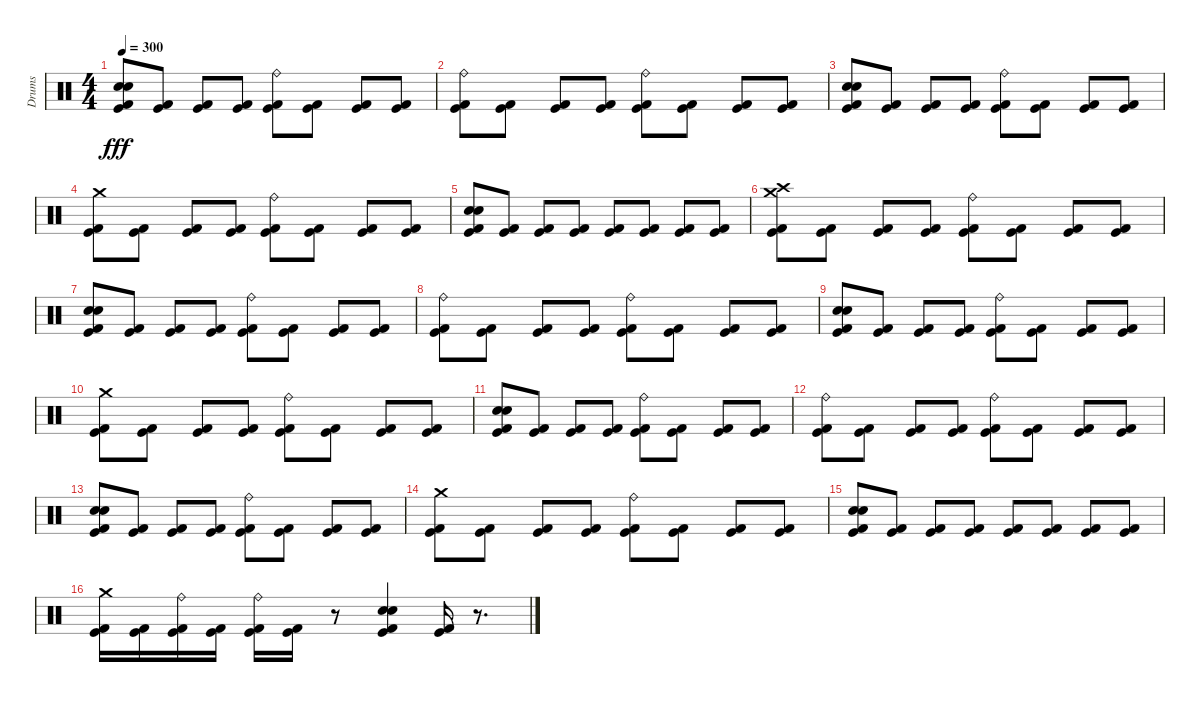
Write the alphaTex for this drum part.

\track ("Drums" "Drums") {instrument percussion}
\staff {score}
\articulation defaults
\ts (4 4)
\tempo 300
\clef neutral
\ks c
("Kick (hit) 2" "Snare (hit) 2" "Electric Snare (hit)" "Kick (hit)").8{dy fff} ("Kick (hit) 2" "Kick (hit)").8 ("Kick (hit) 2" "Kick (hit)").8 ("Kick (hit) 2" "Kick (hit)").8 ("Kick (hit) 2" "Ride (bell)" "Kick (hit)").8 ("Kick (hit) 2" "Kick (hit)").8 ("Kick (hit) 2" "Kick (hit)").8 ("Kick (hit) 2" "Kick (hit)").8 |
("Kick (hit) 2" "Ride (bell)" "Kick (hit)").8 ("Kick (hit) 2" "Kick (hit)").8 ("Kick (hit) 2" "Kick (hit)").8 ("Kick (hit) 2" "Kick (hit)").8 ("Kick (hit) 2" "Kick (hit)" "Ride (bell)").8 ("Kick (hit) 2" "Kick (hit)").8 ("Kick (hit) 2" "Kick (hit)").8 ("Kick (hit) 2" "Kick (hit)").8 |
("Kick (hit) 2" "Kick (hit)" "Electric Snare (hit)" "Snare (hit) 2").8 ("Kick (hit) 2" "Kick (hit)").8 ("Kick (hit) 2" "Kick (hit)").8 ("Kick (hit) 2" "Kick (hit)").8 ("Kick (hit) 2" "Kick (hit)" "Ride (bell)").8 ("Kick (hit) 2" "Kick (hit)").8 ("Kick (hit) 2" "Kick (hit)").8 ("Kick (hit) 2" "Kick (hit)").8 |
("Kick (hit) 2" "Crash medium (hit)" "Kick (hit)").8 ("Kick (hit) 2" "Kick (hit)").8 ("Kick (hit) 2" "Kick (hit)").8 ("Kick (hit) 2" "Kick (hit)").8 ("Kick (hit) 2" "Ride (bell)" "Kick (hit)").8 ("Kick (hit) 2" "Kick (hit)").8 ("Kick (hit) 2" "Kick (hit)").8 ("Kick (hit) 2" "Kick (hit)").8 |
("Kick (hit) 2" "Snare (hit) 2" "Electric Snare (hit)" "Kick (hit)").8 ("Kick (hit) 2" "Kick (hit)").8 ("Kick (hit) 2" "Kick (hit)").8 ("Kick (hit) 2" "Kick (hit)").8 ("Kick (hit) 2" "Kick (hit)").8 ("Kick (hit) 2" "Kick (hit)").8 ("Kick (hit) 2" "Kick (hit)").8 ("Kick (hit) 2" "Kick (hit)").8 |
("Kick (hit) 2" "Crash high (hit)" "Crash medium (hit)" "Kick (hit)").8 ("Kick (hit) 2" "Kick (hit)").8 ("Kick (hit) 2" "Kick (hit)").8 ("Kick (hit) 2" "Kick (hit)").8 ("Kick (hit) 2" "Kick (hit)" "Ride (bell)").8 ("Kick (hit) 2" "Kick (hit)").8 ("Kick (hit) 2" "Kick (hit)").8 ("Kick (hit) 2" "Kick (hit)").8 |
("Kick (hit) 2" "Kick (hit)" "Electric Snare (hit)" "Snare (hit) 2").8 ("Kick (hit) 2" "Kick (hit)").8 ("Kick (hit) 2" "Kick (hit)").8 ("Kick (hit) 2" "Kick (hit)").8 ("Kick (hit) 2" "Kick (hit)" "Ride (bell)").8 ("Kick (hit) 2" "Kick (hit)").8 ("Kick (hit) 2" "Kick (hit)").8 ("Kick (hit) 2" "Kick (hit)").8 |
("Kick (hit) 2" "Ride (bell)" "Kick (hit)").8 ("Kick (hit) 2" "Kick (hit)").8 ("Kick (hit) 2" "Kick (hit)").8 ("Kick (hit) 2" "Kick (hit)").8 ("Kick (hit) 2" "Ride (bell)" "Kick (hit)").8 ("Kick (hit) 2" "Kick (hit)").8 ("Kick (hit) 2" "Kick (hit)").8 ("Kick (hit) 2" "Kick (hit)").8 |
("Kick (hit) 2" "Snare (hit) 2" "Electric Snare (hit)" "Kick (hit)").8 ("Kick (hit) 2" "Kick (hit)").8 ("Kick (hit) 2" "Kick (hit)").8 ("Kick (hit) 2" "Kick (hit)").8 ("Kick (hit) 2" "Ride (bell)" "Kick (hit)").8 ("Kick (hit) 2" "Kick (hit)").8 ("Kick (hit) 2" "Kick (hit)").8 ("Kick (hit) 2" "Kick (hit)").8 |
("Kick (hit) 2" "Crash medium (hit)" "Kick (hit)").8 ("Kick (hit) 2" "Kick (hit)").8 ("Kick (hit) 2" "Kick (hit)").8 ("Kick (hit) 2" "Kick (hit)").8 ("Kick (hit) 2" "Ride (bell)" "Kick (hit)").8 ("Kick (hit) 2" "Kick (hit)").8 ("Kick (hit) 2" "Kick (hit)").8 ("Kick (hit) 2" "Kick (hit)").8 |
("Kick (hit) 2" "Snare (hit) 2" "Electric Snare (hit)" "Kick (hit)").8 ("Kick (hit) 2" "Kick (hit)").8 ("Kick (hit) 2" "Kick (hit)").8 ("Kick (hit) 2" "Kick (hit)").8 ("Kick (hit) 2" "Ride (bell)" "Kick (hit)").8 ("Kick (hit) 2" "Kick (hit)").8 ("Kick (hit) 2" "Kick (hit)").8 ("Kick (hit) 2" "Kick (hit)").8 |
("Kick (hit) 2" "Ride (bell)" "Kick (hit)").8 ("Kick (hit) 2" "Kick (hit)").8 ("Kick (hit) 2" "Kick (hit)").8 ("Kick (hit) 2" "Kick (hit)").8 ("Kick (hit) 2" "Kick (hit)" "Ride (bell)").8 ("Kick (hit) 2" "Kick (hit)").8 ("Kick (hit) 2" "Kick (hit)").8 ("Kick (hit) 2" "Kick (hit)").8 |
("Kick (hit) 2" "Kick (hit)" "Electric Snare (hit)" "Snare (hit) 2").8 ("Kick (hit) 2" "Kick (hit)").8 ("Kick (hit) 2" "Kick (hit)").8 ("Kick (hit) 2" "Kick (hit)").8 ("Kick (hit) 2" "Kick (hit)" "Ride (bell)").8 ("Kick (hit) 2" "Kick (hit)").8 ("Kick (hit) 2" "Kick (hit)").8 ("Kick (hit) 2" "Kick (hit)").8 |
("Kick (hit) 2" "Crash medium (hit)" "Kick (hit)").8 ("Kick (hit) 2" "Kick (hit)").8 ("Kick (hit) 2" "Kick (hit)").8 ("Kick (hit) 2" "Kick (hit)").8 ("Kick (hit) 2" "Ride (bell)" "Kick (hit)").8 ("Kick (hit) 2" "Kick (hit)").8 ("Kick (hit) 2" "Kick (hit)").8 ("Kick (hit) 2" "Kick (hit)").8 |
("Kick (hit) 2" "Snare (hit) 2" "Electric Snare (hit)" "Kick (hit)").8 ("Kick (hit) 2" "Kick (hit)").8 ("Kick (hit) 2" "Kick (hit)").8 ("Kick (hit) 2" "Kick (hit)").8 ("Kick (hit) 2" "Kick (hit)").8 ("Kick (hit) 2" "Kick (hit)").8 ("Kick (hit) 2" "Kick (hit)").8 ("Kick (hit) 2" "Kick (hit)").8 |
("Kick (hit) 2" "Crash medium (hit)" "Kick (hit)").16 ("Kick (hit) 2" "Kick (hit)").16 ("Kick (hit) 2" "Ride (bell)" "Kick (hit)").16 ("Kick (hit) 2" "Kick (hit)").16 ("Kick (hit) 2" "Ride (bell)" "Kick (hit)").16 ("Kick (hit) 2" "Kick (hit)").16 r.8 ("Kick (hit) 2" "Snare (hit) 2" "Electric Snare (hit)" "Kick (hit)").4 ("Kick (hit) 2" "Kick (hit)").16 r.8{d}
